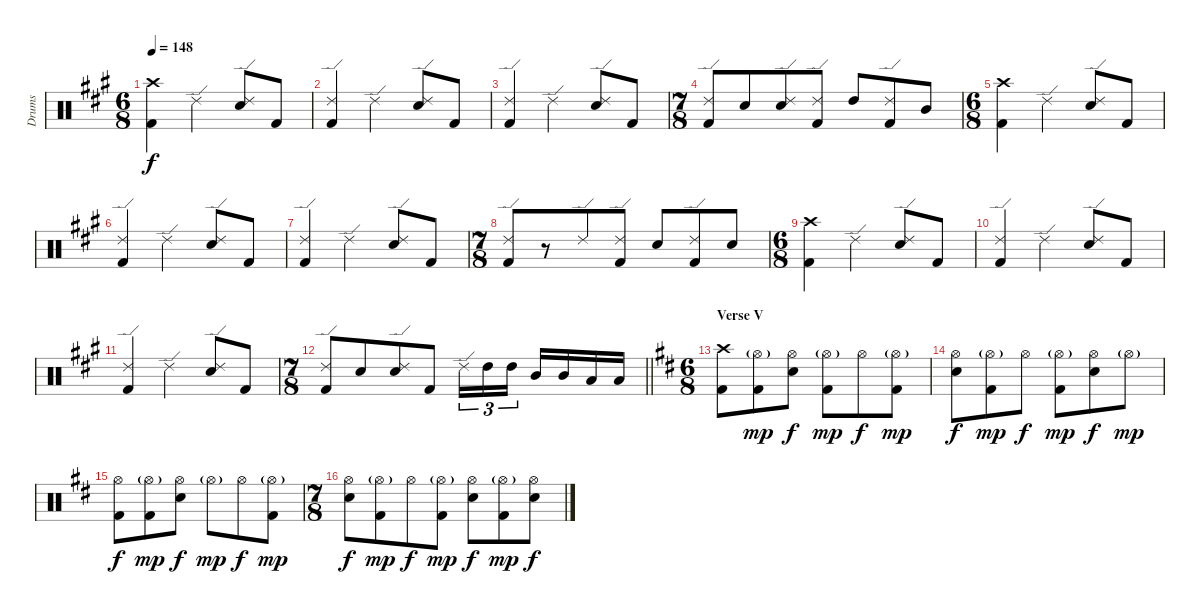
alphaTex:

\track ("Drums" "Drums") {instrument percussion}
\staff {score}
\articulation defaults
\ts (6 8)
\tempo 148
\clef neutral
\ks a
("Crash high (hit)" "Kick (hit) 2").4{dy f} "Ride (edge) 2".4 ("Ride (edge) 2" "Electric Snare (hit)").8 "Kick (hit) 2".8 |
("Ride (edge) 2" "Kick (hit) 2").4 "Ride (edge) 2".4 ("Ride (edge) 2" "Electric Snare (hit)").8 "Kick (hit) 2".8 |
("Ride (edge) 2" "Kick (hit) 2").4 "Ride (edge) 2".4 ("Ride (edge) 2" "Electric Snare (hit)").8 "Kick (hit) 2".8 |
\ts (7 8)
("Ride (edge) 2" "Kick (hit) 2").8 "Electric Snare (hit)".8 ("Ride (edge) 2" "Electric Snare (hit)").8 ("Ride (edge) 2" "Kick (hit) 2").8 "High Tom (hit)".8 ("Ride (edge) 2" "Kick (hit) 2").8 "Mid Tom (hit)".8 |
\ts (6 8)
("Crash high (hit)" "Kick (hit) 2").4 "Ride (edge) 2".4 ("Ride (edge) 2" "Electric Snare (hit)").8 "Kick (hit) 2".8 |
("Ride (edge) 2" "Kick (hit) 2").4 "Ride (edge) 2".4 ("Ride (edge) 2" "Electric Snare (hit)").8 "Kick (hit) 2".8 |
("Ride (edge) 2" "Kick (hit) 2").4 "Ride (edge) 2".4 ("Ride (edge) 2" "Electric Snare (hit)").8 "Kick (hit) 2".8 |
\ts (7 8)
("Ride (edge) 2" "Kick (hit) 2").8 r.8 "Ride (edge) 2".8 ("Ride (edge) 2" "Kick (hit) 2").8 "Electric Snare (hit)".8 ("Ride (edge) 2" "Kick (hit) 2").8 "Electric Snare (hit)".8 |
\ts (6 8)
("Crash high (hit)" "Kick (hit) 2").4 "Ride (edge) 2".4 ("Ride (edge) 2" "Electric Snare (hit)").8 "Kick (hit) 2".8 |
("Ride (edge) 2" "Kick (hit) 2").4 "Ride (edge) 2".4 ("Ride (edge) 2" "Electric Snare (hit)").8 "Kick (hit) 2".8 |
("Ride (edge) 2" "Kick (hit) 2").4 "Ride (edge) 2".4 ("Ride (edge) 2" "Electric Snare (hit)").8 "Kick (hit) 2".8 |
\ts (7 8)
\barLineRight lightlight
("Ride (edge) 2" "Kick (hit) 2").8 "Electric Snare (hit)".8 ("Ride (edge) 2" "Electric Snare (hit)").8 "Kick (hit) 2".8 "Ride (edge) 2".16{tu (3 2)} "High Tom (hit)".16{tu (3 2)} "High Tom (hit)".16{tu (3 2)} "Mid Tom (hit)".16 "Mid Tom (hit)".16 "Low Tom (hit)".16 "Low Tom (hit)".16 |
\ts (6 8)
\section ("" "Verse V")
\ks d
("Crash high (hit)" "Kick (hit) 2").8 ("Hi-Hat (open)"{g} "Kick (hit) 2").8{dy mp} ("Hi-Hat (open)" "Electric Snare (hit)").8{dy f} ("Hi-Hat (open)"{g} "Kick (hit) 2").8{dy mp} "Hi-Hat (open)".8{dy f} ("Hi-Hat (open)"{g} "Kick (hit) 2").8{dy mp} |
("Hi-Hat (open)" "Electric Snare (hit)").8{dy f} ("Hi-Hat (open)"{g} "Kick (hit) 2").8{dy mp} "Hi-Hat (open)".8{dy f} ("Hi-Hat (open)"{g} "Kick (hit) 2").8{dy mp} ("Hi-Hat (open)" "Electric Snare (hit)").8{dy f} "Hi-Hat (open)"{g}.8{dy mp} |
("Hi-Hat (open)" "Kick (hit) 2").8{dy f} ("Hi-Hat (open)"{g} "Kick (hit) 2").8{dy mp} ("Hi-Hat (open)" "Electric Snare (hit)").8{dy f} "Hi-Hat (open)"{g}.8{dy mp} "Hi-Hat (open)".8{dy f} ("Hi-Hat (open)"{g} "Kick (hit) 2").8{dy mp} |
\ts (7 8)
("Hi-Hat (open)" "Electric Snare (hit)").8{dy f} ("Hi-Hat (open)"{g} "Kick (hit) 2").8{dy mp} "Hi-Hat (open)".8{dy f} ("Hi-Hat (open)"{g} "Kick (hit) 2").8{dy mp} ("Hi-Hat (open)" "Electric Snare (hit)").8{dy f} ("Hi-Hat (open)"{g} "Kick (hit) 2").8{dy mp} ("Hi-Hat (open)" "Electric Snare (hit)").8{dy f}
